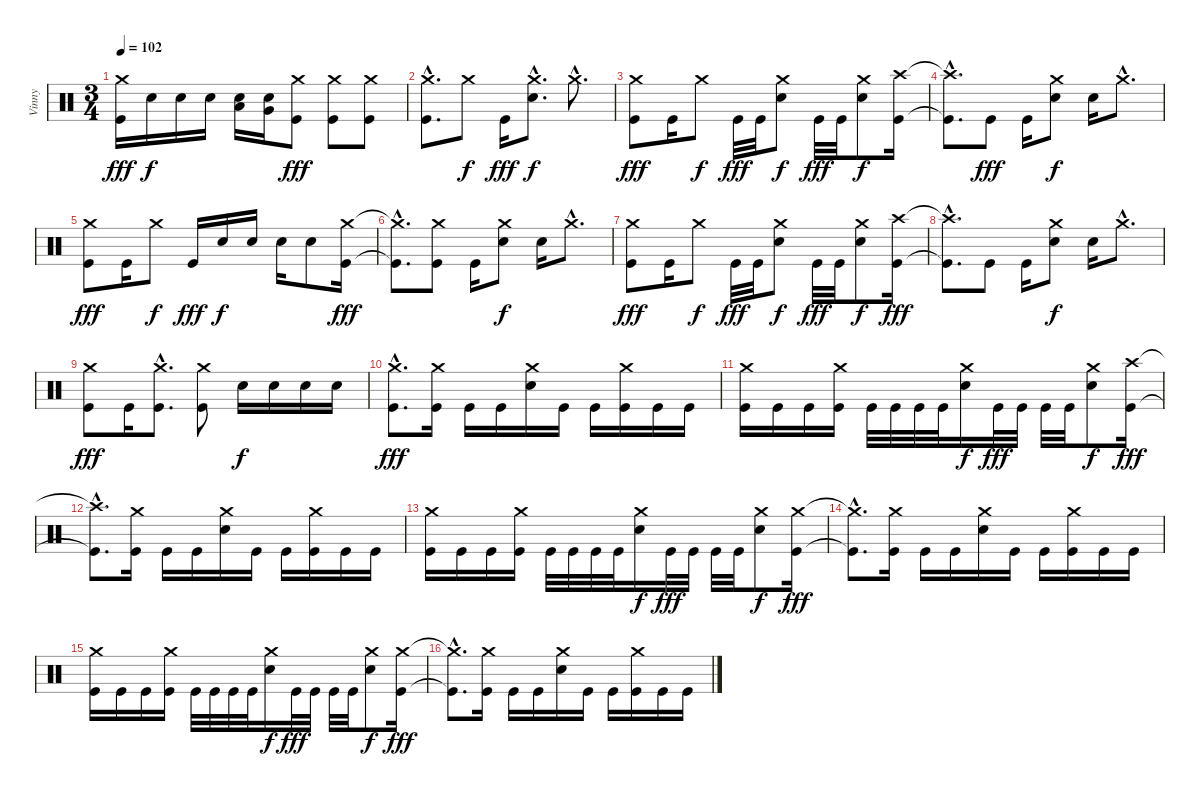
\track ("Vinny" "Vinny") {instrument percussion}
\staff {score}
\articulation defaults
\ts (3 4)
\tempo 102
\clef neutral
\ks c
("Crash medium (hit)" "Kick (hit)").16{dy fff} "Electric Snare (hit)".16{dy f} "Electric Snare (hit)".16 "Electric Snare (hit)".16 ("Electric Snare (hit)" "Low Tom (hit)").16 ("Electric Snare (hit)" "Very Low Tom (hit)").16 ("Crash medium (hit)" "Kick (hit)").8{dy fff} ("Crash medium (hit)" "Kick (hit)").8 ("Crash medium (hit)" "Kick (hit)").8 |
\section ("" "")
("Crash medium (hit)"{hac} "Kick (hit)"{hac}).8{d} "Crash medium (hit)".8{dy f} "Kick (hit)".16{dy fff} ("Crash medium (hit)"{hac} "Electric Snare (hit)"{hac}).8{d dy f} "Crash medium (hit)"{hac}.8{d} |
("Crash medium (hit)" "Kick (hit)").8{dy fff} "Kick (hit)".16 "Crash medium (hit)".8{dy f} "Kick (hit)".32{dy fff} "Kick (hit)".32 ("Crash medium (hit)" "Electric Snare (hit)").8{dy f} "Kick (hit)".32{dy fff} "Kick (hit)".32 ("Crash medium (hit)" "Electric Snare (hit)").8{dy f} ("Crash high (hit)" "Kick (hit)").16 |
("Crash high (hit)"{hac t} "Kick (hit)"{hac t}).8{d} "Kick (hit)".8{dy fff} "Kick (hit)".16 ("Crash medium (hit)" "Electric Snare (hit)").8{dy f} "Electric Snare (hit)".16 "Crash medium (hit)"{hac}.8{d} |
("Crash medium (hit)" "Kick (hit)").8{dy fff} "Kick (hit)".16 "Crash medium (hit)".8{dy f} "Kick (hit)".16{dy fff} "Electric Snare (hit)".16{dy f} "Electric Snare (hit)".16 "Electric Snare (hit)".16 "Electric Snare (hit)".8 ("Crash medium (hit)" "Kick (hit)").16{dy fff} |
("Crash medium (hit)"{hac t} "Kick (hit)"{hac t}).8{d} ("Crash medium (hit)" "Kick (hit)").8 "Kick (hit)".16 ("Crash medium (hit)" "Electric Snare (hit)").8{dy f} "Electric Snare (hit)".16 "Crash medium (hit)"{hac}.8{d} |
("Crash medium (hit)" "Kick (hit)").8{dy fff} "Kick (hit)".16 "Crash medium (hit)".8{dy f} "Kick (hit)".32{dy fff} "Kick (hit)".32 ("Crash medium (hit)" "Electric Snare (hit)").8{dy f} "Kick (hit)".32{dy fff} "Kick (hit)".32 ("Crash medium (hit)" "Electric Snare (hit)").8{dy f} ("Crash high (hit)" "Kick (hit)").16{dy fff} |
("Crash high (hit)"{hac t} "Kick (hit)"{hac t}).8{d} "Kick (hit)".8 "Kick (hit)".16 ("Crash medium (hit)" "Electric Snare (hit)").8{dy f} "Electric Snare (hit)".16 "Crash medium (hit)"{hac}.8{d} |
("Crash medium (hit)" "Kick (hit)").8{dy fff} "Kick (hit)".16 ("Crash medium (hit)"{hac} "Kick (hit)"{hac}).8{d} ("Crash medium (hit)" "Kick (hit)").8 "Electric Snare (hit)".16{dy f} "Electric Snare (hit)".16 "Electric Snare (hit)".16 "Electric Snare (hit)".16 |
("Crash medium (hit)"{hac} "Kick (hit)"{hac}).8{d dy fff} ("Crash medium (hit)" "Kick (hit)").16 "Kick (hit)".16 "Kick (hit)".16 ("Crash medium (hit)" "Electric Snare (hit)").16 "Kick (hit)".16 "Kick (hit)".16 ("Crash medium (hit)" "Kick (hit)").16 "Kick (hit)".16 "Kick (hit)".16 |
("Crash medium (hit)" "Kick (hit)").16 "Kick (hit)".16 "Kick (hit)".16 ("Crash medium (hit)" "Kick (hit)").16 "Kick (hit)".32 "Kick (hit)".32 "Kick (hit)".32 "Kick (hit)".32 ("Crash medium (hit)" "Electric Snare (hit)").16{dy f} "Kick (hit)".32{dy fff} "Kick (hit)".32 "Kick (hit)".32 "Kick (hit)".32 ("Crash medium (hit)" "Electric Snare (hit)").8{dy f} ("Crash high (hit)" "Kick (hit)").16{dy fff} |
("Crash high (hit)"{hac t} "Kick (hit)"{hac t}).8{d} ("Crash medium (hit)" "Kick (hit)").16 "Kick (hit)".16 "Kick (hit)".16 ("Crash medium (hit)" "Electric Snare (hit)").16 "Kick (hit)".16 "Kick (hit)".16 ("Crash medium (hit)" "Kick (hit)").16 "Kick (hit)".16 "Kick (hit)".16 |
("Crash medium (hit)" "Kick (hit)").16 "Kick (hit)".16 "Kick (hit)".16 ("Crash medium (hit)" "Kick (hit)").16 "Kick (hit)".32 "Kick (hit)".32 "Kick (hit)".32 "Kick (hit)".32 ("Crash medium (hit)" "Electric Snare (hit)").16{dy f} "Kick (hit)".32{dy fff} "Kick (hit)".32 "Kick (hit)".32 "Kick (hit)".32 ("Crash medium (hit)" "Electric Snare (hit)").8{dy f} ("Crash medium (hit)" "Kick (hit)").16{dy fff} |
("Crash medium (hit)"{hac t} "Kick (hit)"{hac t}).8{d} ("Crash medium (hit)" "Kick (hit)").16 "Kick (hit)".16 "Kick (hit)".16 ("Crash medium (hit)" "Electric Snare (hit)").16 "Kick (hit)".16 "Kick (hit)".16 ("Crash medium (hit)" "Kick (hit)").16 "Kick (hit)".16 "Kick (hit)".16 |
("Crash medium (hit)" "Kick (hit)").16 "Kick (hit)".16 "Kick (hit)".16 ("Crash medium (hit)" "Kick (hit)").16 "Kick (hit)".32 "Kick (hit)".32 "Kick (hit)".32 "Kick (hit)".32 ("Crash medium (hit)" "Electric Snare (hit)").16{dy f} "Kick (hit)".32{dy fff} "Kick (hit)".32 "Kick (hit)".32 "Kick (hit)".32 ("Crash medium (hit)" "Electric Snare (hit)").8{dy f} ("Crash medium (hit)" "Kick (hit)").16{dy fff} |
("Crash medium (hit)"{hac t} "Kick (hit)"{hac t}).8{d} ("Crash medium (hit)" "Kick (hit)").16 "Kick (hit)".16 "Kick (hit)".16 ("Crash medium (hit)" "Electric Snare (hit)").16 "Kick (hit)".16 "Kick (hit)".16 ("Crash medium (hit)" "Kick (hit)").16 "Kick (hit)".16 "Kick (hit)".16
